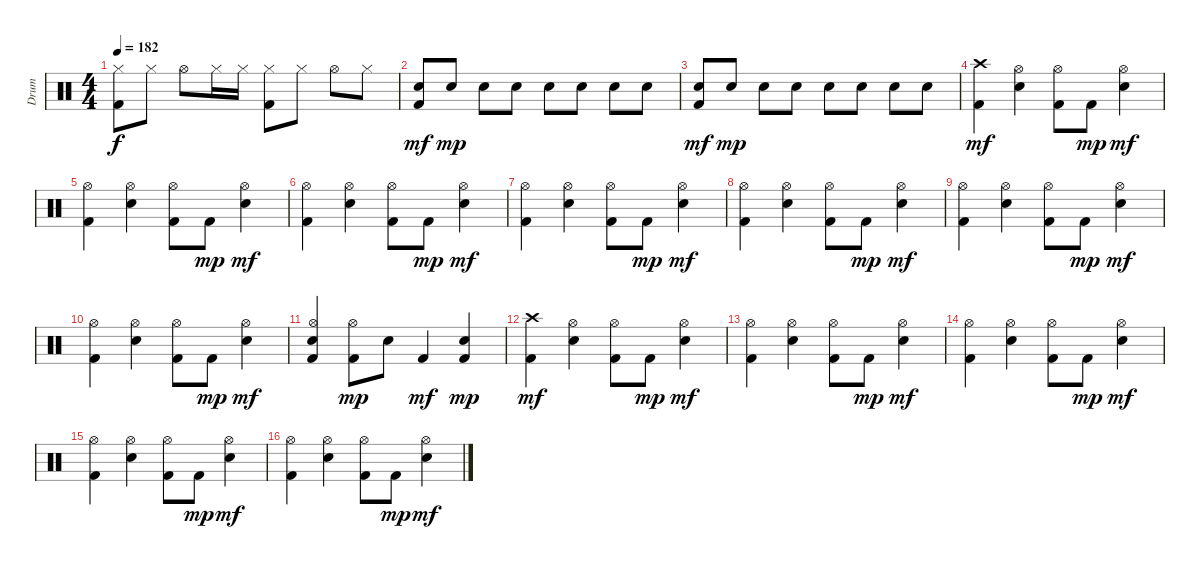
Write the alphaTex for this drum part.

\track ("Drum" "Drum") {instrument percussion}
\staff {score}
\articulation defaults
\ts (4 4)
\tempo 182
\clef neutral
\ks c
("Hi-Hat (closed)" "Kick (hit) 2").8{dy f} "Hi-Hat (closed)".8 "Hi-Hat (open)".8 "Hi-Hat (closed)".16 "Hi-Hat (closed)".16 ("Hi-Hat (closed)" "Kick (hit) 2").8 "Hi-Hat (closed)".8 "Hi-Hat (open)".8 "Hi-Hat (closed)".8 |
("Snare (hit) 2" "Kick (hit) 2").8{dy mf} "Snare (hit) 2".8{dy mp} "Snare (hit) 2".8 "Snare (hit) 2".8 "Snare (hit) 2".8 "Snare (hit) 2".8 "Snare (hit) 2".8 "Snare (hit) 2".8 |
("Snare (hit) 2" "Kick (hit) 2").8{dy mf} "Snare (hit) 2".8{dy mp} "Snare (hit) 2".8 "Snare (hit) 2".8 "Snare (hit) 2".8 "Snare (hit) 2".8 "Snare (hit) 2".8 "Snare (hit) 2".8 |
("Crash high (hit)" "Kick (hit) 2").4{dy mf} ("Snare (hit) 2" "Hi-Hat (open)").4 ("Hi-Hat (open)" "Kick (hit) 2").8 "Kick (hit) 2".8{dy mp} ("Snare (hit) 2" "Hi-Hat (open)").4{dy mf} |
("Hi-Hat (open)" "Kick (hit) 2").4 ("Snare (hit) 2" "Hi-Hat (open)").4 ("Hi-Hat (open)" "Kick (hit) 2").8 "Kick (hit) 2".8{dy mp} ("Snare (hit) 2" "Hi-Hat (open)").4{dy mf} |
("Hi-Hat (open)" "Kick (hit) 2").4 ("Snare (hit) 2" "Hi-Hat (open)").4 ("Hi-Hat (open)" "Kick (hit) 2").8 "Kick (hit) 2".8{dy mp} ("Snare (hit) 2" "Hi-Hat (open)").4{dy mf} |
("Hi-Hat (open)" "Kick (hit) 2").4 ("Snare (hit) 2" "Hi-Hat (open)").4 ("Hi-Hat (open)" "Kick (hit) 2").8 "Kick (hit) 2".8{dy mp} ("Snare (hit) 2" "Hi-Hat (open)").4{dy mf} |
("Hi-Hat (open)" "Kick (hit) 2").4 ("Snare (hit) 2" "Hi-Hat (open)").4 ("Hi-Hat (open)" "Kick (hit) 2").8 "Kick (hit) 2".8{dy mp} ("Snare (hit) 2" "Hi-Hat (open)").4{dy mf} |
("Hi-Hat (open)" "Kick (hit) 2").4 ("Snare (hit) 2" "Hi-Hat (open)").4 ("Hi-Hat (open)" "Kick (hit) 2").8 "Kick (hit) 2".8{dy mp} ("Snare (hit) 2" "Hi-Hat (open)").4{dy mf} |
("Hi-Hat (open)" "Kick (hit) 2").4 ("Snare (hit) 2" "Hi-Hat (open)").4 ("Hi-Hat (open)" "Kick (hit) 2").8 "Kick (hit) 2".8{dy mp} ("Snare (hit) 2" "Hi-Hat (open)").4{dy mf} |
("Snare (hit) 2" "Hi-Hat (open)" "Kick (hit) 2").4 ("Hi-Hat (open)" "Kick (hit) 2").8{dy mp} "Snare (hit) 2".8 "Kick (hit) 2".4{dy mf} ("Snare (hit) 2" "Kick (hit) 2").4{dy mp} |
("Crash high (hit)" "Kick (hit) 2").4{dy mf} ("Snare (hit) 2" "Hi-Hat (open)").4 ("Hi-Hat (open)" "Kick (hit) 2").8 "Kick (hit) 2".8{dy mp} ("Snare (hit) 2" "Hi-Hat (open)").4{dy mf} |
("Hi-Hat (open)" "Kick (hit) 2").4 ("Snare (hit) 2" "Hi-Hat (open)").4 ("Hi-Hat (open)" "Kick (hit) 2").8 "Kick (hit) 2".8{dy mp} ("Snare (hit) 2" "Hi-Hat (open)").4{dy mf} |
("Hi-Hat (open)" "Kick (hit) 2").4 ("Snare (hit) 2" "Hi-Hat (open)").4 ("Hi-Hat (open)" "Kick (hit) 2").8 "Kick (hit) 2".8{dy mp} ("Snare (hit) 2" "Hi-Hat (open)").4{dy mf} |
("Hi-Hat (open)" "Kick (hit) 2").4 ("Snare (hit) 2" "Hi-Hat (open)").4 ("Hi-Hat (open)" "Kick (hit) 2").8 "Kick (hit) 2".8{dy mp} ("Snare (hit) 2" "Hi-Hat (open)").4{dy mf} |
("Hi-Hat (open)" "Kick (hit) 2").4 ("Snare (hit) 2" "Hi-Hat (open)").4 ("Hi-Hat (open)" "Kick (hit) 2").8 "Kick (hit) 2".8{dy mp} ("Snare (hit) 2" "Hi-Hat (open)").4{dy mf}
